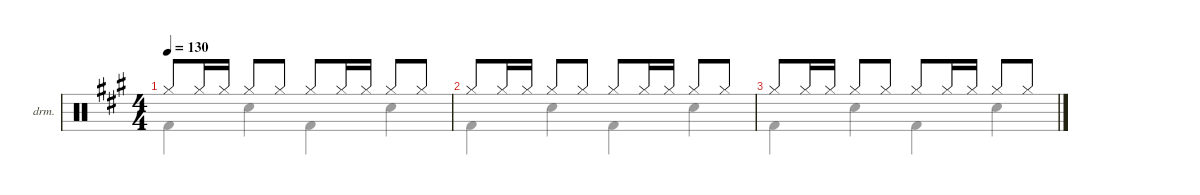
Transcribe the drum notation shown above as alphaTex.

\defaultSystemsLayout 4
\hideDynamics
\bracketExtendMode nobrackets
\firstSystemTrackNameOrientation horizontal
\otherSystemsTrackNameOrientation horizontal
\track ("  " "drm.") {instrument percussion}
\staff {score}
\articulation defaults
\voice
\ts (4 4)
\tempo 130
\clef neutral
\ks f#minor "Hi-Hat (closed)"{acc forcenatural}.8{dy mf beam Up} "Hi-Hat (closed)"{acc forcenatural}.16{beam Up} "Hi-Hat (closed)"{acc forcenatural}.16{beam Up} "Hi-Hat (closed)"{acc forcenatural}.8{beam Up} "Hi-Hat (closed)"{acc forcenatural}.8{beam Up} "Hi-Hat (closed)"{acc forcenatural}.8{beam Up} "Hi-Hat (closed)"{acc forcenatural}.16{beam Up} "Hi-Hat (closed)"{acc forcenatural}.16{beam Up} "Hi-Hat (closed)"{acc forcenatural}.8{beam Up} "Hi-Hat (closed)"{acc forcenatural}.8{beam Up}
|
"Hi-Hat (closed)"{acc forcenatural}.8{beam Up} "Hi-Hat (closed)"{acc forcenatural}.16{beam Up} "Hi-Hat (closed)"{acc forcenatural}.16{beam Up} "Hi-Hat (closed)"{acc forcenatural}.8{beam Up} "Hi-Hat (closed)"{acc forcenatural}.8{beam Up} "Hi-Hat (closed)"{acc forcenatural}.8{beam Up} "Hi-Hat (closed)"{acc forcenatural}.16{beam Up} "Hi-Hat (closed)"{acc forcenatural}.16{beam Up} "Hi-Hat (closed)"{acc forcenatural}.8{beam Up} "Hi-Hat (closed)"{acc forcenatural}.8{beam Up} |
"Hi-Hat (closed)"{acc forcenatural}.8{beam Up} "Hi-Hat (closed)"{acc forcenatural}.16{beam Up} "Hi-Hat (closed)"{acc forcenatural}.16{beam Up} "Hi-Hat (closed)"{acc forcenatural}.8{beam Up} "Hi-Hat (closed)"{acc forcenatural}.8{beam Up} "Hi-Hat (closed)"{acc forcenatural}.8{beam Up} "Hi-Hat (closed)"{acc forcenatural}.16{beam Up} "Hi-Hat (closed)"{acc forcenatural}.16{beam Up} "Hi-Hat (closed)"{acc forcenatural}.8{beam Up} "Hi-Hat (closed)"{acc forcenatural}.8{beam Up} |
|
|
|
|
|
|
|
|
|
\voice
\clef neutral
\ottava regular
\simile none
\ks f#minor "Kick (hit) 2"{acc forcenatural}.4{dy mf beam Down} "Snare (hit) 2"{acc forcenatural}.4{beam Down} "Kick (hit) 2"{acc forcenatural}.4{beam Down} "Snare (hit) 2"{acc forcenatural}.4{beam Down}
|
"Kick (hit) 2"{acc forcenatural}.4{beam Down} "Snare (hit) 2"{acc forcenatural}.4{beam Down} "Kick (hit) 2"{acc forcenatural}.4{beam Down} "Snare (hit) 2"{acc forcenatural}.4{beam Down} |
"Kick (hit) 2"{acc forcenatural}.4{beam Down} "Snare (hit) 2"{acc forcenatural}.4{beam Down} "Kick (hit) 2"{acc forcenatural}.4{beam Down} "Snare (hit) 2"{acc forcenatural}.4{beam Down} |
|
|
|
|
|
|
|
|
|
